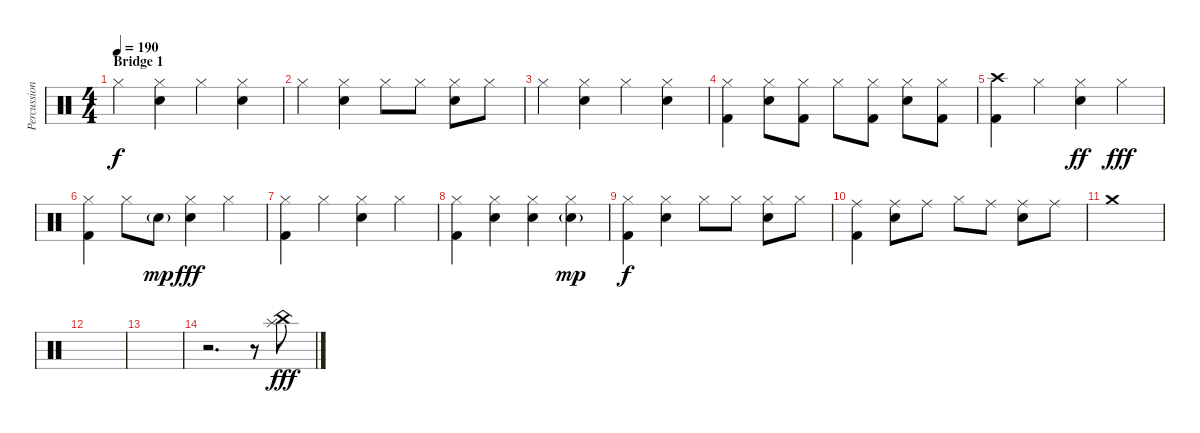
\track ("Percussion" "Percussion") {instrument percussion}
\staff {score}
\articulation defaults
\ts (4 4)
\section ("" "Bridge 1")
\tempo 190
\clef neutral
\ks c "Hi-Hat (closed)".4{dy f}
("Hi-Hat (closed)" "Electric Snare (hit)").4 "Hi-Hat (closed)".4 ("Hi-Hat (closed)" "Electric Snare (hit)").4 |
"Hi-Hat (closed)".4 ("Hi-Hat (closed)" "Electric Snare (hit)").4 "Hi-Hat (closed)".8 "Hi-Hat (closed)".8 ("Hi-Hat (closed)" "Electric Snare (hit)").8 "Hi-Hat (closed)".8 |
"Hi-Hat (closed)".4 ("Hi-Hat (closed)" "Electric Snare (hit)").4 "Hi-Hat (closed)".4 ("Hi-Hat (closed)" "Electric Snare (hit)").4 |
("Hi-Hat (closed)" "Kick (hit) 2").4 ("Hi-Hat (closed)" "Electric Snare (hit)").8 ("Hi-Hat (closed)" "Kick (hit) 2").8 "Hi-Hat (closed)".8 ("Hi-Hat (closed)" "Kick (hit) 2").8 ("Hi-Hat (closed)" "Electric Snare (hit)").8 ("Hi-Hat (closed)" "Kick (hit) 2").8 |
("Crash high (hit)" "Kick (hit) 2").4 "Hi-Hat (closed)".4 ("Hi-Hat (closed)" "Electric Snare (hit)").4{dy ff} "Hi-Hat (closed)".4{dy fff} |
("Hi-Hat (closed)" "Kick (hit) 2").4 "Hi-Hat (closed)".8 "Electric Snare (hit)"{g}.8{dy mp} ("Hi-Hat (closed)" "Electric Snare (hit)").4{dy fff} "Hi-Hat (closed)".4 |
("Hi-Hat (closed)" "Kick (hit) 2").4 "Hi-Hat (closed)".4 ("Hi-Hat (closed)" "Electric Snare (hit)").4 "Hi-Hat (closed)".4 |
("Hi-Hat (closed)" "Kick (hit) 2").4 ("Hi-Hat (closed)" "Electric Snare (hit)").4 ("Hi-Hat (closed)" "Electric Snare (hit)").4 ("Hi-Hat (closed)" "Electric Snare (hit)"{g}).4{dy mp} |
("Hi-Hat (closed)" "Kick (hit) 2").4{dy f} ("Hi-Hat (closed)" "Electric Snare (hit)").4 "Hi-Hat (closed)".8 "Hi-Hat (closed)".8 ("Hi-Hat (closed)" "Electric Snare (hit)").8 "Hi-Hat (closed)".8 |
("Ride (middle)" "Kick (hit) 2").4 ("Ride (middle)" "Electric Snare (hit)").8 "Ride (middle)".8 "Hi-Hat (closed)".8 "Ride (middle)".8 ("Ride (middle)" "Electric Snare (hit)").8 "Ride (middle)".8 |
"Crash medium (hit)".1 |
|
|
r.2{d} r.8 ("Splash (hit)" "China (hit)").8{dy fff}
